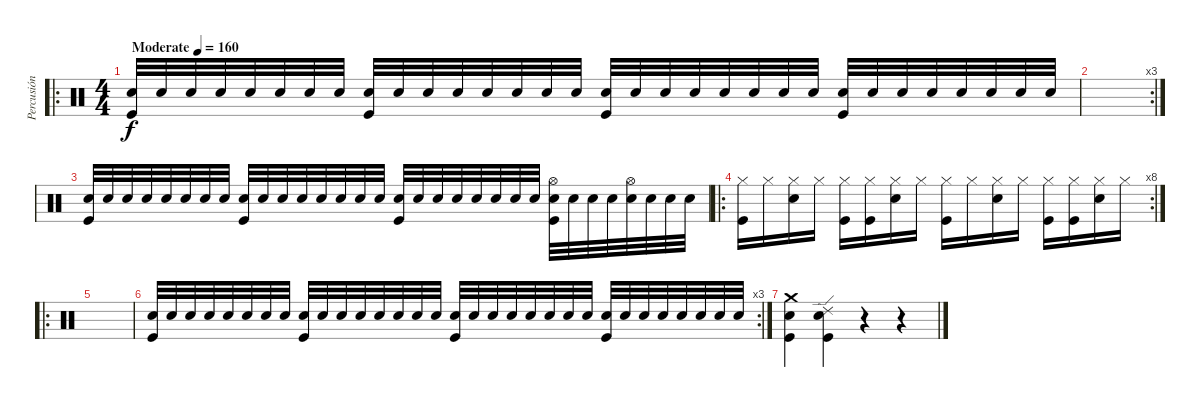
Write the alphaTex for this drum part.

\track ("Percusión" "Percusión") {instrument percussion}
\staff {score}
\articulation defaults
\ro
\ts (4 4)
\tempo (160 "Moderate")
\clef neutral
\ks c
("Electric Snare (hit)" "Kick (hit)").32{dy f} "Electric Snare (hit)".32 "Electric Snare (hit)".32 "Electric Snare (hit)".32 "Electric Snare (hit)".32 "Electric Snare (hit)".32 "Electric Snare (hit)".32 "Electric Snare (hit)".32 ("Electric Snare (hit)" "Kick (hit)").32 "Electric Snare (hit)".32 "Electric Snare (hit)".32 "Electric Snare (hit)".32 "Electric Snare (hit)".32 "Electric Snare (hit)".32 "Electric Snare (hit)".32 "Electric Snare (hit)".32 ("Electric Snare (hit)" "Kick (hit)").32 "Electric Snare (hit)".32 "Electric Snare (hit)".32 "Electric Snare (hit)".32 "Electric Snare (hit)".32 "Electric Snare (hit)".32 "Electric Snare (hit)".32 "Electric Snare (hit)".32 ("Electric Snare (hit)" "Kick (hit)").32 "Electric Snare (hit)".32 "Electric Snare (hit)".32 "Electric Snare (hit)".32 "Electric Snare (hit)".32 "Electric Snare (hit)".32 "Electric Snare (hit)".32 "Electric Snare (hit)".32 |
\rc 3
|
("Electric Snare (hit)" "Kick (hit)").32 "Electric Snare (hit)".32 "Electric Snare (hit)".32 "Electric Snare (hit)".32 "Electric Snare (hit)".32 "Electric Snare (hit)".32 "Electric Snare (hit)".32 "Electric Snare (hit)".32 ("Electric Snare (hit)" "Kick (hit)").32 "Electric Snare (hit)".32 "Electric Snare (hit)".32 "Electric Snare (hit)".32 "Electric Snare (hit)".32 "Electric Snare (hit)".32 "Electric Snare (hit)".32 "Electric Snare (hit)".32 ("Electric Snare (hit)" "Kick (hit)").32 "Electric Snare (hit)".32 "Electric Snare (hit)".32 "Electric Snare (hit)".32 "Electric Snare (hit)".32 "Electric Snare (hit)".32 "Electric Snare (hit)".32 "Electric Snare (hit)".32 ("Electric Snare (hit)" "Hi-Hat (open)" "Kick (hit)").32 "Electric Snare (hit)".32 "Electric Snare (hit)".32 "Electric Snare (hit)".32 ("Electric Snare (hit)" "Hi-Hat (open)").32 "Electric Snare (hit)".32 "Electric Snare (hit)".32 "Electric Snare (hit)".32 |
\ro
\rc 8
("Hi-Hat (closed)" "Kick (hit)").16 "Hi-Hat (closed)".16 ("Hi-Hat (closed)" "Electric Snare (hit)").16 "Hi-Hat (closed)".16 ("Hi-Hat (closed)" "Kick (hit)").16 ("Hi-Hat (closed)" "Kick (hit)").16 ("Hi-Hat (closed)" "Electric Snare (hit)").16 "Hi-Hat (closed)".16 ("Hi-Hat (closed)" "Kick (hit)").16 "Hi-Hat (closed)".16 ("Hi-Hat (closed)" "Electric Snare (hit)").16 "Hi-Hat (closed)".16 ("Hi-Hat (closed)" "Kick (hit)").16 ("Hi-Hat (closed)" "Kick (hit)").16 ("Hi-Hat (closed)" "Electric Snare (hit)").16 "Hi-Hat (closed)".16 |
\ro
|
\rc 3
("Electric Snare (hit)" "Kick (hit)").32 "Electric Snare (hit)".32 "Electric Snare (hit)".32 "Electric Snare (hit)".32 "Electric Snare (hit)".32 "Electric Snare (hit)".32 "Electric Snare (hit)".32 "Electric Snare (hit)".32 ("Electric Snare (hit)" "Kick (hit)").32 "Electric Snare (hit)".32 "Electric Snare (hit)".32 "Electric Snare (hit)".32 "Electric Snare (hit)".32 "Electric Snare (hit)".32 "Electric Snare (hit)".32 "Electric Snare (hit)".32 ("Electric Snare (hit)" "Kick (hit)").32 "Electric Snare (hit)".32 "Electric Snare (hit)".32 "Electric Snare (hit)".32 "Electric Snare (hit)".32 "Electric Snare (hit)".32 "Electric Snare (hit)".32 "Electric Snare (hit)".32 ("Electric Snare (hit)" "Kick (hit)").32 "Electric Snare (hit)".32 "Electric Snare (hit)".32 "Electric Snare (hit)".32 "Electric Snare (hit)".32 "Electric Snare (hit)".32 "Electric Snare (hit)".32 "Electric Snare (hit)".32 |
("Crash medium (hit)" "Electric Snare (hit)" "Kick (hit)").4 ("Ride (edge) 2" "Electric Snare (hit)" "Kick (hit)").4 r.4 r.4
